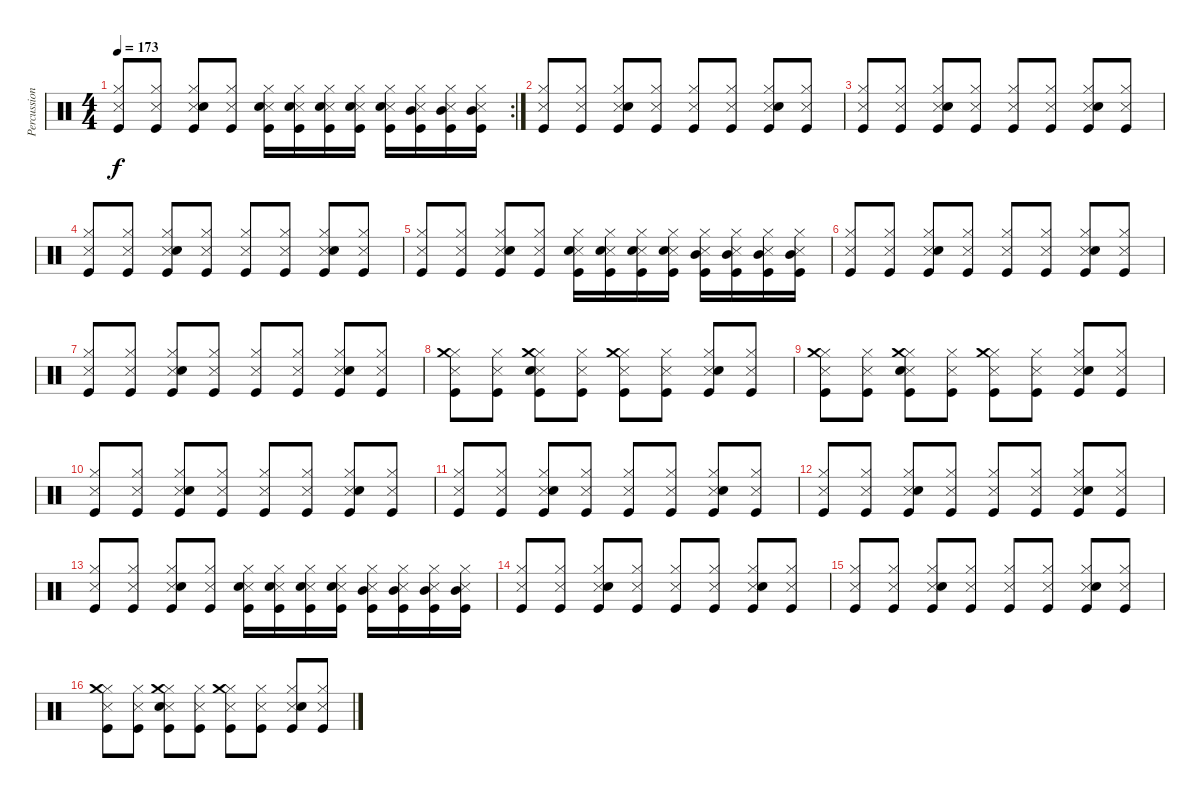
\track ("Percussion" "Percussion") {instrument percussion}
\staff {score}
\articulation defaults
\rc 2
\ts (4 4)
\tempo 173
\clef neutral
\ks c
("Snare (side stick) 3" "Hi-Hat (closed)" "Kick (hit)").8{dy f} ("Snare (side stick) 3" "Hi-Hat (closed)" "Kick (hit)").8 ("Snare (side stick) 3" "Hi-Hat (closed)" "Snare (hit) 2" "Kick (hit)").8 ("Snare (side stick) 3" "Hi-Hat (closed)" "Kick (hit)").8 ("Snare (side stick) 3" "Hi-Hat (closed)" "Snare (hit) 2" "Kick (hit)").16 ("Snare (side stick) 3" "Hi-Hat (closed)" "Snare (hit) 2" "Kick (hit)").16 ("Snare (side stick) 3" "Hi-Hat (closed)" "Snare (hit) 2" "Kick (hit)").16 ("Snare (side stick) 3" "Hi-Hat (closed)" "Snare (hit) 2" "Kick (hit)").16 ("Snare (side stick) 3" "Hi-Hat (closed)" "Snare (hit)" "Kick (hit)").16 ("Snare (side stick) 3" "Hi-Hat (closed)" "Mid Tom (hit)" "Kick (hit)").16 ("Snare (side stick) 3" "Hi-Hat (closed)" "Mid Tom (hit)" "Kick (hit)").16 ("Snare (side stick) 3" "Hi-Hat (closed)" "Mid Tom (hit)" "Kick (hit)").16 |
("Snare (side stick) 3" "Hi-Hat (closed)" "Kick (hit)").8 ("Snare (side stick) 3" "Hi-Hat (closed)" "Kick (hit)").8 ("Snare (side stick) 3" "Hi-Hat (closed)" "Snare (hit) 2" "Kick (hit)").8 ("Snare (side stick) 3" "Hi-Hat (closed)" "Kick (hit)").8 ("Snare (side stick) 3" "Hi-Hat (closed)" "Kick (hit)").8 ("Snare (side stick) 3" "Hi-Hat (closed)" "Kick (hit)").8 ("Snare (side stick) 3" "Hi-Hat (closed)" "Snare (hit) 2" "Kick (hit)").8 ("Snare (side stick) 3" "Hi-Hat (closed)" "Kick (hit)").8 |
("Snare (side stick) 3" "Hi-Hat (closed)" "Kick (hit)").8 ("Snare (side stick) 3" "Hi-Hat (closed)" "Kick (hit)").8 ("Snare (side stick) 3" "Hi-Hat (closed)" "Snare (hit) 2" "Kick (hit)").8 ("Snare (side stick) 3" "Hi-Hat (closed)" "Kick (hit)").8 ("Snare (side stick) 3" "Hi-Hat (closed)" "Kick (hit)").8 ("Snare (side stick) 3" "Hi-Hat (closed)" "Kick (hit)").8 ("Snare (side stick) 3" "Hi-Hat (closed)" "Snare (hit) 2" "Kick (hit)").8 ("Snare (side stick) 3" "Hi-Hat (closed)" "Kick (hit)").8 |
("Snare (side stick) 3" "Hi-Hat (closed)" "Kick (hit)").8 ("Snare (side stick) 3" "Hi-Hat (closed)" "Kick (hit)").8 ("Snare (side stick) 3" "Hi-Hat (closed)" "Snare (hit) 2" "Kick (hit)").8 ("Snare (side stick) 3" "Hi-Hat (closed)" "Kick (hit)").8 ("Snare (side stick) 3" "Hi-Hat (closed)" "Kick (hit)").8 ("Snare (side stick) 3" "Hi-Hat (closed)" "Kick (hit)").8 ("Snare (side stick) 3" "Hi-Hat (closed)" "Snare (hit) 2" "Kick (hit)").8 ("Snare (side stick) 3" "Hi-Hat (closed)" "Kick (hit)").8 |
("Snare (side stick) 3" "Hi-Hat (closed)" "Kick (hit)").8 ("Snare (side stick) 3" "Hi-Hat (closed)" "Kick (hit)").8 ("Snare (side stick) 3" "Hi-Hat (closed)" "Snare (hit) 2" "Kick (hit)").8 ("Snare (side stick) 3" "Hi-Hat (closed)" "Kick (hit)").8 ("Snare (side stick) 3" "Hi-Hat (closed)" "Snare (hit) 2" "Kick (hit)").16 ("Snare (side stick) 3" "Hi-Hat (closed)" "Snare (hit) 2" "Kick (hit)").16 ("Snare (side stick) 3" "Hi-Hat (closed)" "Snare (hit) 2" "Kick (hit)").16 ("Snare (side stick) 3" "Hi-Hat (closed)" "Snare (hit) 2" "Kick (hit)").16 ("Snare (side stick) 3" "Hi-Hat (closed)" "Mid Tom (hit)" "Kick (hit)").16 ("Snare (side stick) 3" "Hi-Hat (closed)" "Mid Tom (hit)" "Kick (hit)").16 ("Snare (side stick) 3" "Hi-Hat (closed)" "Mid Tom (hit)" "Kick (hit)").16 ("Snare (side stick) 3" "Hi-Hat (closed)" "Mid Tom (hit)" "Kick (hit)").16 |
("Snare (side stick) 3" "Hi-Hat (closed)" "Kick (hit)").8 ("Snare (side stick) 3" "Hi-Hat (closed)" "Kick (hit)").8 ("Snare (side stick) 3" "Hi-Hat (closed)" "Snare (hit) 2" "Kick (hit)").8 ("Snare (side stick) 3" "Hi-Hat (closed)" "Kick (hit)").8 ("Snare (side stick) 3" "Hi-Hat (closed)" "Kick (hit)").8 ("Snare (side stick) 3" "Hi-Hat (closed)" "Kick (hit)").8 ("Snare (side stick) 3" "Hi-Hat (closed)" "Snare (hit) 2" "Kick (hit)").8 ("Snare (side stick) 3" "Hi-Hat (closed)" "Kick (hit)").8 |
("Snare (side stick) 3" "Hi-Hat (closed)" "Kick (hit)").8 ("Snare (side stick) 3" "Hi-Hat (closed)" "Kick (hit)").8 ("Snare (side stick) 3" "Hi-Hat (closed)" "Snare (hit) 2" "Kick (hit)").8 ("Snare (side stick) 3" "Hi-Hat (closed)" "Kick (hit)").8 ("Snare (side stick) 3" "Hi-Hat (closed)" "Kick (hit)").8 ("Snare (side stick) 3" "Hi-Hat (closed)" "Kick (hit)").8 ("Snare (side stick) 3" "Hi-Hat (closed)" "Snare (hit) 2" "Kick (hit)").8 ("Snare (side stick) 3" "Hi-Hat (closed)" "Kick (hit)").8 |
("Snare (side stick) 3" "Hi-Hat (closed)" "Crash medium (hit)" "Kick (hit)").8 ("Snare (side stick) 3" "Hi-Hat (closed)" "Kick (hit)").8 ("Snare (side stick) 3" "Hi-Hat (closed)" "Crash medium (hit)" "Snare (hit) 2" "Kick (hit)").8 ("Snare (side stick) 3" "Hi-Hat (closed)" "Kick (hit)").8 ("Snare (side stick) 3" "Hi-Hat (closed)" "Crash medium (hit)" "Kick (hit)").8 ("Snare (side stick) 3" "Hi-Hat (closed)" "Kick (hit)").8 ("Snare (side stick) 3" "Hi-Hat (closed)" "Snare (hit) 2" "Kick (hit)").8 ("Snare (side stick) 3" "Hi-Hat (closed)" "Kick (hit)").8 |
("Snare (side stick) 3" "Hi-Hat (closed)" "Crash medium (hit)" "Kick (hit)").8 ("Snare (side stick) 3" "Hi-Hat (closed)" "Kick (hit)").8 ("Snare (side stick) 3" "Hi-Hat (closed)" "Crash medium (hit)" "Snare (hit) 2" "Kick (hit)").8 ("Snare (side stick) 3" "Hi-Hat (closed)" "Kick (hit)").8 ("Snare (side stick) 3" "Hi-Hat (closed)" "Crash medium (hit)" "Kick (hit)").8 ("Snare (side stick) 3" "Hi-Hat (closed)" "Kick (hit)").8 ("Snare (side stick) 3" "Hi-Hat (closed)" "Snare (hit) 2" "Kick (hit)").8 ("Snare (side stick) 3" "Hi-Hat (closed)" "Kick (hit)").8 |
("Snare (side stick) 3" "Hi-Hat (closed)" "Kick (hit)").8 ("Snare (side stick) 3" "Hi-Hat (closed)" "Kick (hit)").8 ("Snare (side stick) 3" "Hi-Hat (closed)" "Snare (hit) 2" "Kick (hit)").8 ("Snare (side stick) 3" "Hi-Hat (closed)" "Kick (hit)").8 ("Snare (side stick) 3" "Hi-Hat (closed)" "Kick (hit)").8 ("Snare (side stick) 3" "Hi-Hat (closed)" "Kick (hit)").8 ("Snare (side stick) 3" "Hi-Hat (closed)" "Snare (hit) 2" "Kick (hit)").8 ("Snare (side stick) 3" "Hi-Hat (closed)" "Kick (hit)").8 |
("Snare (side stick) 3" "Hi-Hat (closed)" "Kick (hit)").8 ("Snare (side stick) 3" "Hi-Hat (closed)" "Kick (hit)").8 ("Snare (side stick) 3" "Hi-Hat (closed)" "Snare (hit) 2" "Kick (hit)").8 ("Snare (side stick) 3" "Hi-Hat (closed)" "Kick (hit)").8 ("Snare (side stick) 3" "Hi-Hat (closed)" "Kick (hit)").8 ("Snare (side stick) 3" "Hi-Hat (closed)" "Kick (hit)").8 ("Snare (side stick) 3" "Hi-Hat (closed)" "Snare (hit) 2" "Kick (hit)").8 ("Snare (side stick) 3" "Hi-Hat (closed)" "Kick (hit)").8 |
("Snare (side stick) 3" "Hi-Hat (closed)" "Kick (hit)").8 ("Snare (side stick) 3" "Hi-Hat (closed)" "Kick (hit)").8 ("Snare (side stick) 3" "Hi-Hat (closed)" "Snare (hit) 2" "Kick (hit)").8 ("Snare (side stick) 3" "Hi-Hat (closed)" "Kick (hit)").8 ("Snare (side stick) 3" "Hi-Hat (closed)" "Kick (hit)").8 ("Snare (side stick) 3" "Hi-Hat (closed)" "Kick (hit)").8 ("Snare (side stick) 3" "Hi-Hat (closed)" "Snare (hit) 2" "Kick (hit)").8 ("Snare (side stick) 3" "Hi-Hat (closed)" "Kick (hit)").8 |
("Snare (side stick) 3" "Hi-Hat (closed)" "Kick (hit)").8 ("Snare (side stick) 3" "Hi-Hat (closed)" "Kick (hit)").8 ("Snare (side stick) 3" "Hi-Hat (closed)" "Snare (hit) 2" "Kick (hit)").8 ("Snare (side stick) 3" "Hi-Hat (closed)" "Kick (hit)").8 ("Snare (side stick) 3" "Hi-Hat (closed)" "Snare (hit) 2" "Kick (hit)").16 ("Snare (side stick) 3" "Hi-Hat (closed)" "Snare (hit) 2" "Kick (hit)").16 ("Snare (side stick) 3" "Hi-Hat (closed)" "Snare (hit) 2" "Kick (hit)").16 ("Snare (side stick) 3" "Hi-Hat (closed)" "Snare (hit) 2" "Kick (hit)").16 ("Snare (side stick) 3" "Hi-Hat (closed)" "Mid Tom (hit)" "Kick (hit)").16 ("Snare (side stick) 3" "Hi-Hat (closed)" "Mid Tom (hit)" "Kick (hit)").16 ("Snare (side stick) 3" "Hi-Hat (closed)" "Mid Tom (hit)" "Kick (hit)").16 ("Snare (side stick) 3" "Hi-Hat (closed)" "Mid Tom (hit)" "Kick (hit)").16 |
("Snare (side stick) 3" "Hi-Hat (closed)" "Kick (hit)").8 ("Snare (side stick) 3" "Hi-Hat (closed)" "Kick (hit)").8 ("Snare (side stick) 3" "Hi-Hat (closed)" "Snare (hit) 2" "Kick (hit)").8 ("Snare (side stick) 3" "Hi-Hat (closed)" "Kick (hit)").8 ("Snare (side stick) 3" "Hi-Hat (closed)" "Kick (hit)").8 ("Snare (side stick) 3" "Hi-Hat (closed)" "Kick (hit)").8 ("Snare (side stick) 3" "Hi-Hat (closed)" "Snare (hit) 2" "Kick (hit)").8 ("Snare (side stick) 3" "Hi-Hat (closed)" "Kick (hit)").8 |
("Snare (side stick) 3" "Hi-Hat (closed)" "Kick (hit)").8 ("Snare (side stick) 3" "Hi-Hat (closed)" "Kick (hit)").8 ("Snare (side stick) 3" "Hi-Hat (closed)" "Snare (hit) 2" "Kick (hit)").8 ("Snare (side stick) 3" "Hi-Hat (closed)" "Kick (hit)").8 ("Snare (side stick) 3" "Hi-Hat (closed)" "Kick (hit)").8 ("Snare (side stick) 3" "Hi-Hat (closed)" "Kick (hit)").8 ("Snare (side stick) 3" "Hi-Hat (closed)" "Snare (hit) 2" "Kick (hit)").8 ("Snare (side stick) 3" "Hi-Hat (closed)" "Kick (hit)").8 |
("Snare (side stick) 3" "Hi-Hat (closed)" "Crash medium (hit)" "Kick (hit)").8 ("Snare (side stick) 3" "Hi-Hat (closed)" "Kick (hit)").8 ("Snare (side stick) 3" "Hi-Hat (closed)" "Crash medium (hit)" "Snare (hit) 2" "Kick (hit)").8 ("Snare (side stick) 3" "Hi-Hat (closed)" "Kick (hit)").8 ("Snare (side stick) 3" "Hi-Hat (closed)" "Crash medium (hit)" "Kick (hit)").8 ("Snare (side stick) 3" "Hi-Hat (closed)" "Kick (hit)").8 ("Snare (side stick) 3" "Hi-Hat (closed)" "Snare (hit) 2" "Kick (hit)").8 ("Snare (side stick) 3" "Hi-Hat (closed)" "Kick (hit)").8
